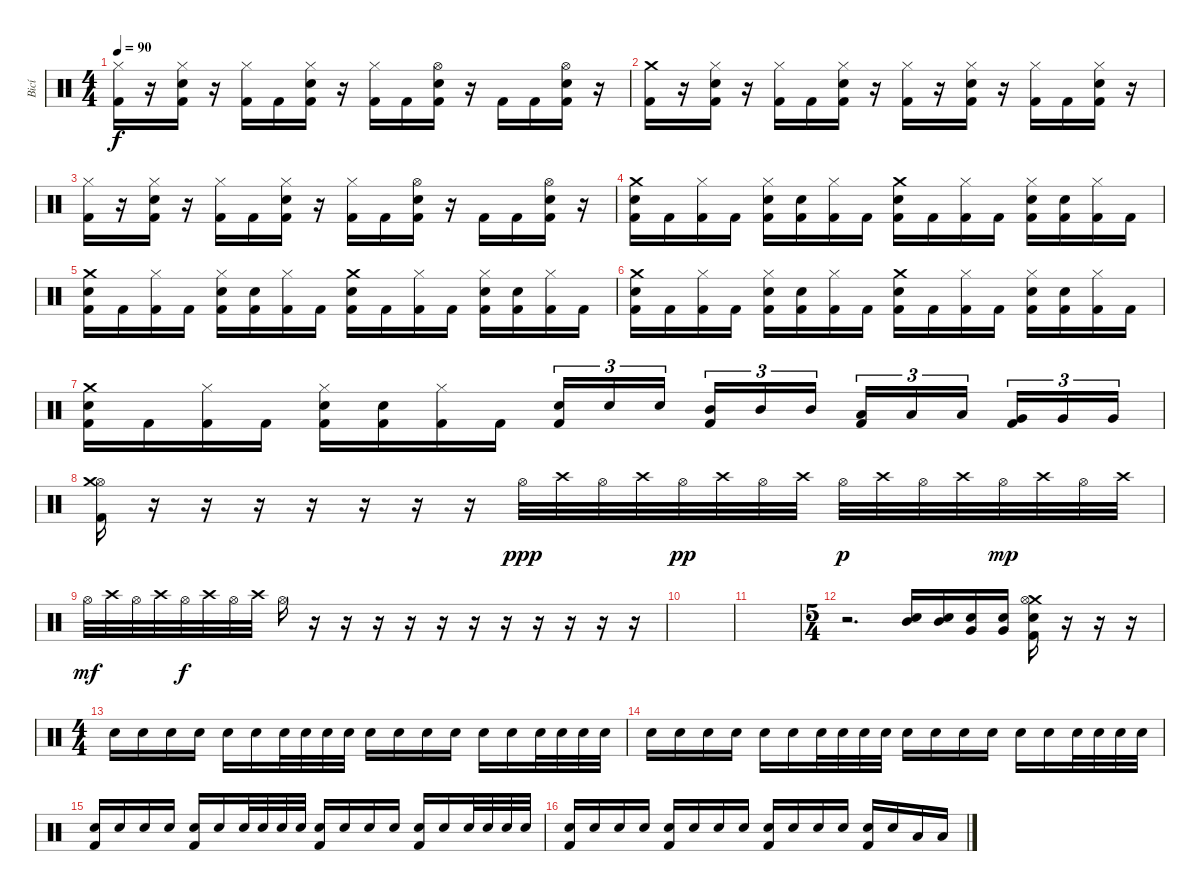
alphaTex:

\track ("Bicí" "Bicí") {instrument percussion}
\staff {score}
\articulation defaults
\ts (4 4)
\tempo 90
\clef neutral
\ks c
("Hi-Hat (closed)" "Kick (hit) 2").16{dy f} r.16 ("Hi-Hat (closed)" "Electric Snare (hit)" "Kick (hit) 2").16 r.16 ("Hi-Hat (closed)" "Kick (hit) 2").16 "Kick (hit) 2".16 ("Hi-Hat (closed)" "Electric Snare (hit)" "Kick (hit) 2").16 r.16 ("Hi-Hat (closed)" "Kick (hit) 2").16 "Kick (hit) 2".16 ("Hi-Hat (open)" "Electric Snare (hit)" "Kick (hit) 2").16 r.16 "Kick (hit) 2".16 "Kick (hit) 2".16 ("Hi-Hat (open)" "Electric Snare (hit)" "Kick (hit) 2").16 r.16 |
("Crash medium (hit)" "Kick (hit) 2").16 r.16 ("Hi-Hat (closed)" "Electric Snare (hit)" "Kick (hit) 2").16 r.16 ("Hi-Hat (closed)" "Kick (hit) 2").16 "Kick (hit) 2".16 ("Hi-Hat (closed)" "Electric Snare (hit)" "Kick (hit) 2").16 r.16 ("Hi-Hat (closed)" "Kick (hit) 2").16 r.16 ("Hi-Hat (closed)" "Electric Snare (hit)" "Kick (hit) 2").16 r.16 ("Hi-Hat (closed)" "Kick (hit) 2").16 "Kick (hit) 2".16 ("Hi-Hat (closed)" "Electric Snare (hit)" "Kick (hit) 2").16 r.16 |
("Hi-Hat (closed)" "Kick (hit) 2").16 r.16 ("Hi-Hat (closed)" "Electric Snare (hit)" "Kick (hit) 2").16 r.16 ("Hi-Hat (closed)" "Kick (hit) 2").16 "Kick (hit) 2".16 ("Hi-Hat (closed)" "Electric Snare (hit)" "Kick (hit) 2").16 r.16 ("Hi-Hat (closed)" "Kick (hit) 2").16 "Kick (hit) 2".16 ("Hi-Hat (open)" "Electric Snare (hit)" "Kick (hit) 2").16 r.16 "Kick (hit) 2".16 "Kick (hit) 2".16 ("Hi-Hat (open)" "Electric Snare (hit)" "Kick (hit) 2").16 r.16 |
("Crash medium (hit)" "Electric Snare (hit)" "Kick (hit) 2").16 "Kick (hit) 2".16 ("Hi-Hat (closed)" "Kick (hit) 2").16 "Kick (hit) 2".16 ("Hi-Hat (closed)" "Electric Snare (hit)" "Kick (hit) 2").16 ("Electric Snare (hit)" "Kick (hit) 2").16 ("Hi-Hat (closed)" "Kick (hit) 2").16 "Kick (hit) 2".16 ("Crash medium (hit)" "Electric Snare (hit)" "Kick (hit) 2").16 "Kick (hit) 2".16 ("Hi-Hat (closed)" "Kick (hit) 2").16 "Kick (hit) 2".16 ("Hi-Hat (closed)" "Electric Snare (hit)" "Kick (hit) 2").16 ("Electric Snare (hit)" "Kick (hit) 2").16 ("Hi-Hat (closed)" "Kick (hit) 2").16 "Kick (hit) 2".16 |
("Crash medium (hit)" "Electric Snare (hit)" "Kick (hit) 2").16 "Kick (hit) 2".16 ("Hi-Hat (closed)" "Kick (hit) 2").16 "Kick (hit) 2".16 ("Hi-Hat (closed)" "Electric Snare (hit)" "Kick (hit) 2").16 ("Electric Snare (hit)" "Kick (hit) 2").16 ("Hi-Hat (closed)" "Kick (hit) 2").16 "Kick (hit) 2".16 ("Crash medium (hit)" "Electric Snare (hit)" "Kick (hit) 2").16 "Kick (hit) 2".16 ("Hi-Hat (closed)" "Kick (hit) 2").16 "Kick (hit) 2".16 ("Hi-Hat (closed)" "Electric Snare (hit)" "Kick (hit) 2").16 ("Electric Snare (hit)" "Kick (hit) 2").16 ("Hi-Hat (closed)" "Kick (hit) 2").16 "Kick (hit) 2".16 |
("Crash medium (hit)" "Electric Snare (hit)" "Kick (hit) 2").16 "Kick (hit) 2".16 ("Hi-Hat (closed)" "Kick (hit) 2").16 "Kick (hit) 2".16 ("Hi-Hat (closed)" "Electric Snare (hit)" "Kick (hit) 2").16 ("Electric Snare (hit)" "Kick (hit) 2").16 ("Hi-Hat (closed)" "Kick (hit) 2").16 "Kick (hit) 2".16 ("Crash medium (hit)" "Electric Snare (hit)" "Kick (hit) 2").16 "Kick (hit) 2".16 ("Hi-Hat (closed)" "Kick (hit) 2").16 "Kick (hit) 2".16 ("Hi-Hat (closed)" "Electric Snare (hit)" "Kick (hit) 2").16 ("Electric Snare (hit)" "Kick (hit) 2").16 ("Hi-Hat (closed)" "Kick (hit) 2").16 "Kick (hit) 2".16 |
("Crash medium (hit)" "Electric Snare (hit)" "Kick (hit) 2").16 "Kick (hit) 2".16 ("Hi-Hat (closed)" "Kick (hit) 2").16 "Kick (hit) 2".16 ("Hi-Hat (closed)" "Electric Snare (hit)" "Kick (hit) 2").16 ("Electric Snare (hit)" "Kick (hit) 2").16 ("Hi-Hat (closed)" "Kick (hit) 2").16 "Kick (hit) 2".16 ("Electric Snare (hit)" "Kick (hit) 2").16{tu (3 2)} "Electric Snare (hit)".16{tu (3 2)} "Electric Snare (hit)".16{tu (3 2)} ("Mid Tom (hit)" "Kick (hit) 2").16{tu (3 2)} "Mid Tom (hit)".16{tu (3 2)} "Mid Tom (hit)".16{tu (3 2)} ("Low Tom (hit)" "Kick (hit) 2").16{tu (3 2)} "Low Tom (hit)".16{tu (3 2)} "Low Tom (hit)".16{tu (3 2)} ("Very Low Tom (hit)" "Kick (hit) 2").16{tu (3 2)} "Very Low Tom (hit)".16{tu (3 2)} "Very Low Tom (hit)".16{tu (3 2)} |
("Hi-Hat (open)" "Crash medium (hit)" "Kick (hit) 2").16 r.16 r.16 r.16 r.16 r.16 r.16 r.16 "Hi-Hat (open)".32{dy ppp} "Crash high (hit)".32 "Hi-Hat (open)".32 "Crash high (hit)".32 "Hi-Hat (open)".32{dy pp} "Crash high (hit)".32 "Hi-Hat (open)".32 "Crash high (hit)".32 "Hi-Hat (open)".32{dy p} "Crash high (hit)".32 "Hi-Hat (open)".32 "Crash high (hit)".32 "Hi-Hat (open)".32{dy mp} "Crash high (hit)".32 "Hi-Hat (open)".32 "Crash high (hit)".32 |
"Hi-Hat (open)".32{dy mf} "Crash high (hit)".32 "Hi-Hat (open)".32 "Crash high (hit)".32 "Hi-Hat (open)".32{dy f} "Crash high (hit)".32 "Hi-Hat (open)".32 "Crash high (hit)".32 "Hi-Hat (open)".16 r.16 r.16 r.16 r.16 r.16 r.16 r.16 r.16 r.16 r.16 r.16 |
|
|
\ts (5 4)
r.2{d} ("Mid Tom (hit)" "Electric Snare (hit)").16 ("Mid Tom (hit)" "Electric Snare (hit)").16 ("Very Low Tom (hit)" "Electric Snare (hit)").16 ("Very Low Tom (hit)" "Electric Snare (hit)").16 ("Crash medium (hit)" "Hi-Hat (open)" "Electric Snare (hit)" "Kick (hit) 2").16 r.16 r.16 r.16 |
\ts (4 4)
"Electric Snare (hit)".16{volume 10} "Electric Snare (hit)".16 "Electric Snare (hit)".16 "Electric Snare (hit)".16 "Electric Snare (hit)".16 "Electric Snare (hit)".16 "Electric Snare (hit)".32 "Electric Snare (hit)".32 "Electric Snare (hit)".32 "Electric Snare (hit)".32 "Electric Snare (hit)".16 "Electric Snare (hit)".16 "Electric Snare (hit)".16 "Electric Snare (hit)".16 "Electric Snare (hit)".16 "Electric Snare (hit)".16 "Electric Snare (hit)".32 "Electric Snare (hit)".32 "Electric Snare (hit)".32 "Electric Snare (hit)".32 |
"Electric Snare (hit)".16 "Electric Snare (hit)".16 "Electric Snare (hit)".16 "Electric Snare (hit)".16 "Electric Snare (hit)".16 "Electric Snare (hit)".16 "Electric Snare (hit)".32 "Electric Snare (hit)".32 "Electric Snare (hit)".32 "Electric Snare (hit)".32 "Electric Snare (hit)".16 "Electric Snare (hit)".16 "Electric Snare (hit)".16 "Electric Snare (hit)".16 "Electric Snare (hit)".16 "Electric Snare (hit)".16 "Electric Snare (hit)".32 "Electric Snare (hit)".32 "Electric Snare (hit)".32 "Electric Snare (hit)".32 |
("Electric Snare (hit)" "Kick (hit) 2").16 "Electric Snare (hit)".16 "Electric Snare (hit)".16 "Electric Snare (hit)".16 ("Electric Snare (hit)" "Kick (hit) 2").16 "Electric Snare (hit)".16 "Electric Snare (hit)".32 "Electric Snare (hit)".32 "Electric Snare (hit)".32 "Electric Snare (hit)".32 ("Electric Snare (hit)" "Kick (hit) 2").16 "Electric Snare (hit)".16 "Electric Snare (hit)".16 "Electric Snare (hit)".16 ("Electric Snare (hit)" "Kick (hit) 2").16 "Electric Snare (hit)".16 "Electric Snare (hit)".32 "Electric Snare (hit)".32 "Electric Snare (hit)".32 "Electric Snare (hit)".32 |
("Electric Snare (hit)" "Kick (hit) 2").16{volume 13} "Electric Snare (hit)".16 "Electric Snare (hit)".16 "Electric Snare (hit)".16 ("Electric Snare (hit)" "Kick (hit) 2").16 "Electric Snare (hit)".16 "Electric Snare (hit)".16 "Electric Snare (hit)".16 ("Electric Snare (hit)" "Kick (hit) 2").16 "Electric Snare (hit)".16 "Electric Snare (hit)".16 "Electric Snare (hit)".16 ("Electric Snare (hit)" "Kick (hit) 2").16 "Electric Snare (hit)".16 "Low Tom (hit)".16 "Low Tom (hit)".16
